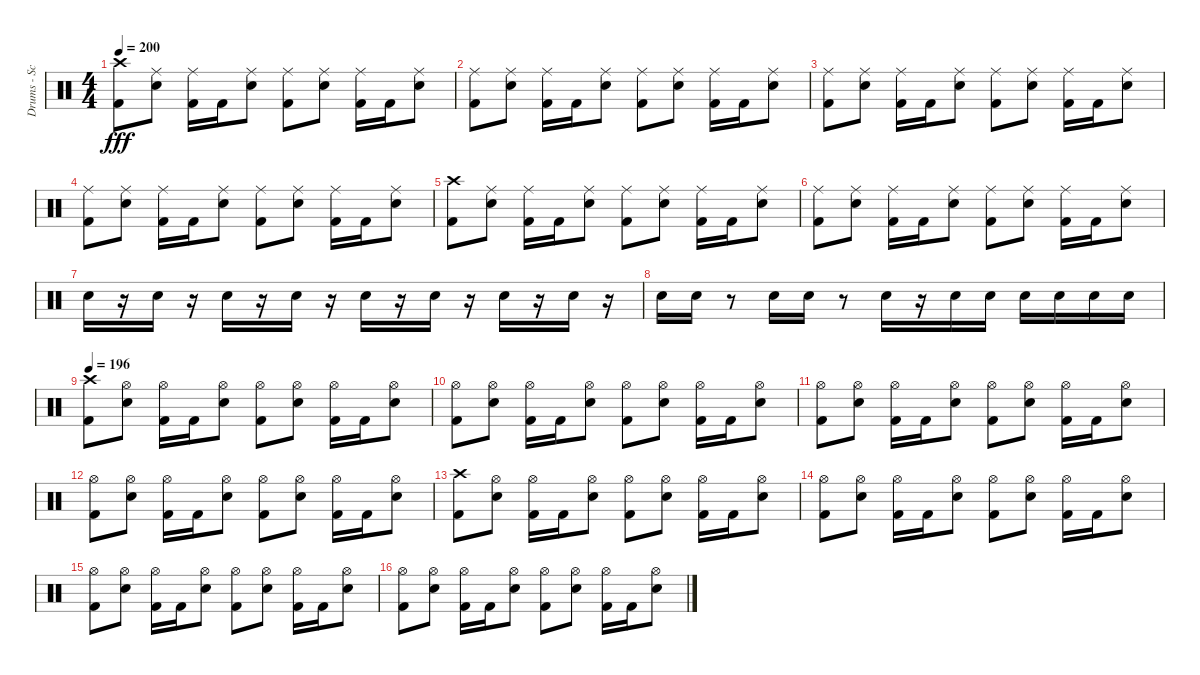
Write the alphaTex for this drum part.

\track ("Drums - Scott" "Drums - Sc") {instrument percussion}
\staff {score}
\articulation defaults
\ts (4 4)
\tempo 200
\clef neutral
\ks c
("Crash high (hit)" "Kick (hit) 2").8{dy fff} ("Ride (middle)" "Electric Snare (hit)").8 ("Ride (middle)" "Kick (hit) 2").16 "Kick (hit) 2".16 ("Ride (middle)" "Electric Snare (hit)").8 ("Ride (middle)" "Kick (hit) 2").8 ("Ride (middle)" "Electric Snare (hit)").8 ("Ride (middle)" "Kick (hit) 2").16 "Kick (hit) 2".16 ("Ride (middle)" "Electric Snare (hit)").8 |
("Kick (hit) 2" "Ride (middle)").8 ("Electric Snare (hit)" "Ride (middle)").8 ("Kick (hit) 2" "Ride (middle)").16 "Kick (hit) 2".16 ("Electric Snare (hit)" "Ride (middle)").8 ("Kick (hit) 2" "Ride (middle)").8 ("Electric Snare (hit)" "Ride (middle)").8 ("Kick (hit) 2" "Ride (middle)").16 "Kick (hit) 2".16 ("Electric Snare (hit)" "Ride (middle)").8 |
("Kick (hit) 2" "Ride (middle)").8 ("Electric Snare (hit)" "Ride (middle)").8 ("Kick (hit) 2" "Ride (middle)").16 "Kick (hit) 2".16 ("Electric Snare (hit)" "Ride (middle)").8 ("Kick (hit) 2" "Ride (middle)").8 ("Electric Snare (hit)" "Ride (middle)").8 ("Kick (hit) 2" "Ride (middle)").16 "Kick (hit) 2".16 ("Electric Snare (hit)" "Ride (middle)").8 |
("Kick (hit) 2" "Ride (middle)").8 ("Electric Snare (hit)" "Ride (middle)").8 ("Kick (hit) 2" "Ride (middle)").16 "Kick (hit) 2".16 ("Electric Snare (hit)" "Ride (middle)").8 ("Kick (hit) 2" "Ride (middle)").8 ("Electric Snare (hit)" "Ride (middle)").8 ("Kick (hit) 2" "Ride (middle)").16 "Kick (hit) 2".16 ("Electric Snare (hit)" "Ride (middle)").8 |
("Crash high (hit)" "Kick (hit) 2").8 ("Ride (middle)" "Electric Snare (hit)").8 ("Ride (middle)" "Kick (hit) 2").16 "Kick (hit) 2".16 ("Ride (middle)" "Electric Snare (hit)").8 ("Ride (middle)" "Kick (hit) 2").8 ("Ride (middle)" "Electric Snare (hit)").8 ("Ride (middle)" "Kick (hit) 2").16 "Kick (hit) 2".16 ("Ride (middle)" "Electric Snare (hit)").8 |
("Kick (hit) 2" "Ride (middle)").8 ("Electric Snare (hit)" "Ride (middle)").8 ("Kick (hit) 2" "Ride (middle)").16 "Kick (hit) 2".16 ("Electric Snare (hit)" "Ride (middle)").8 ("Kick (hit) 2" "Ride (middle)").8 ("Electric Snare (hit)" "Ride (middle)").8 ("Kick (hit) 2" "Ride (middle)").16 "Kick (hit) 2".16 ("Electric Snare (hit)" "Ride (middle)").8 |
"Electric Snare (hit)".16 r.16 "Electric Snare (hit)".16 r.16 "Electric Snare (hit)".16 r.16 "Electric Snare (hit)".16 r.16 "Electric Snare (hit)".16 r.16 "Electric Snare (hit)".16 r.16 "Electric Snare (hit)".16 r.16 "Electric Snare (hit)".16 r.16 |
"Electric Snare (hit)".16 "Electric Snare (hit)".16 r.8 "Electric Snare (hit)".16 "Electric Snare (hit)".16 r.8 "Electric Snare (hit)".16 r.16 "Electric Snare (hit)".16 "Electric Snare (hit)".16 "Electric Snare (hit)".16 "Electric Snare (hit)".16 "Electric Snare (hit)".16 "Electric Snare (hit)".16 |
\tempo 196
("Crash high (hit)" "Kick (hit) 2").8 ("Hi-Hat (open)" "Electric Snare (hit)").8 ("Hi-Hat (open)" "Kick (hit) 2").16 "Kick (hit) 2".16 ("Hi-Hat (open)" "Electric Snare (hit)").8 ("Hi-Hat (open)" "Kick (hit) 2").8 ("Hi-Hat (open)" "Electric Snare (hit)").8 ("Hi-Hat (open)" "Kick (hit) 2").16 "Kick (hit) 2".16 ("Hi-Hat (open)" "Electric Snare (hit)").8 |
("Hi-Hat (open)" "Kick (hit) 2").8 ("Hi-Hat (open)" "Electric Snare (hit)").8 ("Hi-Hat (open)" "Kick (hit) 2").16 "Kick (hit) 2".16 ("Hi-Hat (open)" "Electric Snare (hit)").8 ("Hi-Hat (open)" "Kick (hit) 2").8 ("Hi-Hat (open)" "Electric Snare (hit)").8 ("Hi-Hat (open)" "Kick (hit) 2").16 "Kick (hit) 2".16 ("Hi-Hat (open)" "Electric Snare (hit)").8 |
("Hi-Hat (open)" "Kick (hit) 2").8 ("Hi-Hat (open)" "Electric Snare (hit)").8 ("Hi-Hat (open)" "Kick (hit) 2").16 "Kick (hit) 2".16 ("Hi-Hat (open)" "Electric Snare (hit)").8 ("Hi-Hat (open)" "Kick (hit) 2").8 ("Hi-Hat (open)" "Electric Snare (hit)").8 ("Hi-Hat (open)" "Kick (hit) 2").16 "Kick (hit) 2".16 ("Hi-Hat (open)" "Electric Snare (hit)").8 |
("Hi-Hat (open)" "Kick (hit) 2").8 ("Hi-Hat (open)" "Electric Snare (hit)").8 ("Hi-Hat (open)" "Kick (hit) 2").16 "Kick (hit) 2".16 ("Hi-Hat (open)" "Electric Snare (hit)").8 ("Hi-Hat (open)" "Kick (hit) 2").8 ("Hi-Hat (open)" "Electric Snare (hit)").8 ("Hi-Hat (open)" "Kick (hit) 2").16 "Kick (hit) 2".16 ("Hi-Hat (open)" "Electric Snare (hit)").8 |
("Crash high (hit)" "Kick (hit) 2").8 ("Hi-Hat (open)" "Electric Snare (hit)").8 ("Hi-Hat (open)" "Kick (hit) 2").16 "Kick (hit) 2".16 ("Hi-Hat (open)" "Electric Snare (hit)").8 ("Hi-Hat (open)" "Kick (hit) 2").8 ("Hi-Hat (open)" "Electric Snare (hit)").8 ("Hi-Hat (open)" "Kick (hit) 2").16 "Kick (hit) 2".16 ("Hi-Hat (open)" "Electric Snare (hit)").8 |
("Hi-Hat (open)" "Kick (hit) 2").8 ("Hi-Hat (open)" "Electric Snare (hit)").8 ("Hi-Hat (open)" "Kick (hit) 2").16 "Kick (hit) 2".16 ("Hi-Hat (open)" "Electric Snare (hit)").8 ("Hi-Hat (open)" "Kick (hit) 2").8 ("Hi-Hat (open)" "Electric Snare (hit)").8 ("Hi-Hat (open)" "Kick (hit) 2").16 "Kick (hit) 2".16 ("Hi-Hat (open)" "Electric Snare (hit)").8 |
("Hi-Hat (open)" "Kick (hit) 2").8 ("Hi-Hat (open)" "Electric Snare (hit)").8 ("Hi-Hat (open)" "Kick (hit) 2").16 "Kick (hit) 2".16 ("Hi-Hat (open)" "Electric Snare (hit)").8 ("Hi-Hat (open)" "Kick (hit) 2").8 ("Hi-Hat (open)" "Electric Snare (hit)").8 ("Hi-Hat (open)" "Kick (hit) 2").16 "Kick (hit) 2".16 ("Hi-Hat (open)" "Electric Snare (hit)").8 |
("Hi-Hat (open)" "Kick (hit) 2").8 ("Hi-Hat (open)" "Electric Snare (hit)").8 ("Hi-Hat (open)" "Kick (hit) 2").16 "Kick (hit) 2".16 ("Hi-Hat (open)" "Electric Snare (hit)").8 ("Hi-Hat (open)" "Kick (hit) 2").8 ("Hi-Hat (open)" "Electric Snare (hit)").8 ("Hi-Hat (open)" "Kick (hit) 2").16 "Kick (hit) 2".16 ("Hi-Hat (open)" "Electric Snare (hit)").8
